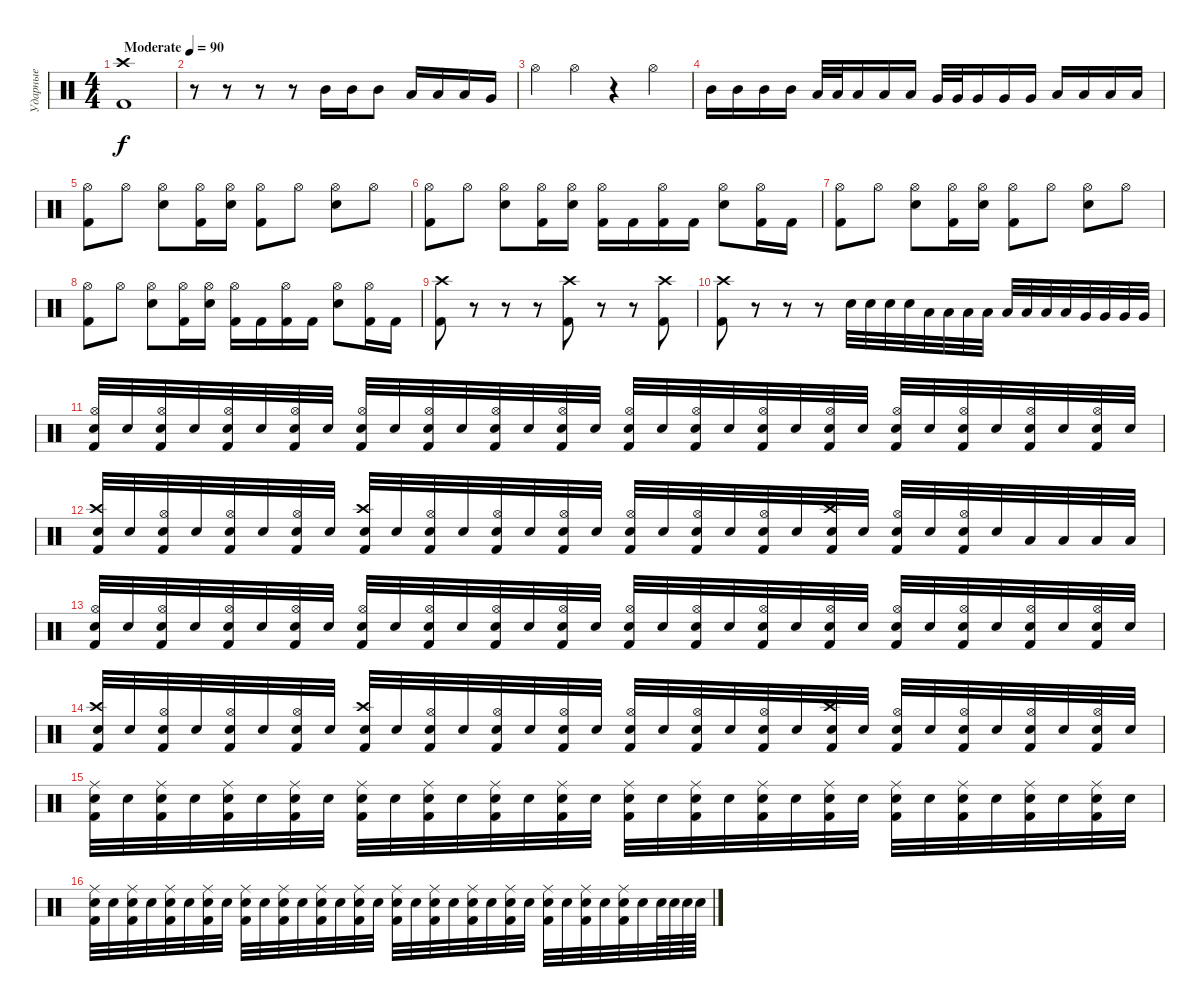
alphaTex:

\track ("Ударные" "Ударные") {instrument percussion}
\staff {score}
\articulation defaults
\ts (4 4)
\tempo (90 "Moderate")
\clef neutral
\ks c
("Kick (hit) 2" "Crash high (hit)").1{dy f} |
r.8 r.8 r.8 r.8 "Mid Tom (hit)".16 "Mid Tom (hit)".16 "Mid Tom (hit)".8 "Low Tom (hit)".16 "Low Tom (hit)".16 "Low Tom (hit)".16 "Very Low Tom (hit)".16 |
"Hi-Hat (open)".4 "Hi-Hat (open)".4 r.4 "Hi-Hat (open)".4 |
"Mid Tom (hit)".16 "Mid Tom (hit)".16 "Mid Tom (hit)".16 "Mid Tom (hit)".16 "Low Tom (hit)".32 "Low Tom (hit)".32 "Low Tom (hit)".16 "Low Tom (hit)".16 "Low Tom (hit)".16 "Very Low Tom (hit)".32 "Very Low Tom (hit)".32 "Very Low Tom (hit)".16 "Very Low Tom (hit)".16 "Very Low Tom (hit)".16 "Low Floor Tom (hit)".16 "Low Floor Tom (hit)".16 "Low Floor Tom (hit)".16 "Low Floor Tom (hit)".16 |
("Kick (hit) 2" "Hi-Hat (open)").8 "Hi-Hat (open)".8 ("Hi-Hat (open)" "Snare (hit) 2").8 ("Kick (hit) 2" "Hi-Hat (open)").16 ("Snare (hit) 2" "Hi-Hat (open)").16 ("Kick (hit) 2" "Hi-Hat (open)").8 "Hi-Hat (open)".8 ("Snare (hit) 2" "Hi-Hat (open)").8 "Hi-Hat (open)".8 |
("Kick (hit) 2" "Hi-Hat (open)").8 "Hi-Hat (open)".8 ("Hi-Hat (open)" "Snare (hit) 2").8 ("Kick (hit) 2" "Hi-Hat (open)").16 ("Snare (hit) 2" "Hi-Hat (open)").16 ("Kick (hit) 2" "Hi-Hat (open)").16 "Kick (hit) 2".16 ("Kick (hit) 2" "Hi-Hat (open)").16 "Kick (hit) 2".16 ("Snare (hit) 2" "Hi-Hat (open)").8 ("Kick (hit) 2" "Hi-Hat (open)").16 "Kick (hit) 2".16 |
("Kick (hit) 2" "Hi-Hat (open)").8 "Hi-Hat (open)".8 ("Hi-Hat (open)" "Snare (hit) 2").8 ("Kick (hit) 2" "Hi-Hat (open)").16 ("Snare (hit) 2" "Hi-Hat (open)").16 ("Kick (hit) 2" "Hi-Hat (open)").8 "Hi-Hat (open)".8 ("Snare (hit) 2" "Hi-Hat (open)").8 "Hi-Hat (open)".8 |
("Kick (hit) 2" "Hi-Hat (open)").8 "Hi-Hat (open)".8 ("Hi-Hat (open)" "Snare (hit) 2").8 ("Kick (hit) 2" "Hi-Hat (open)").16 ("Snare (hit) 2" "Hi-Hat (open)").16 ("Kick (hit) 2" "Hi-Hat (open)").16 "Kick (hit) 2".16 ("Kick (hit) 2" "Hi-Hat (open)").16 "Kick (hit) 2".16 ("Snare (hit) 2" "Hi-Hat (open)").8 ("Kick (hit) 2" "Hi-Hat (open)").16 "Kick (hit) 2".16 |
("Crash high (hit)" "Kick (hit) 2").8 r.8 r.8 r.8 ("Kick (hit) 2" "Crash high (hit)").8 r.8 r.8 ("Kick (hit) 2" "Crash high (hit)").8 |
("Kick (hit) 2" "Crash high (hit)").8 r.8 r.8 r.8 "Snare (hit) 2".32 "Snare (hit) 2".32 "Snare (hit) 2".32 "Snare (hit) 2".32 "Low Tom (hit)".32 "Low Tom (hit)".32 "Low Tom (hit)".32 "Low Tom (hit)".32 "Low Tom (hit)".32 "Low Tom (hit)".32 "Low Tom (hit)".32 "Low Tom (hit)".32 "Very Low Tom (hit)".32 "Very Low Tom (hit)".32 "Very Low Tom (hit)".32 "Very Low Tom (hit)".32 |
("Snare (hit) 2" "Kick (hit) 2" "Hi-Hat (open)").32 "Snare (hit) 2".32 ("Snare (hit) 2" "Kick (hit) 2" "Hi-Hat (open)").32 "Snare (hit) 2".32 ("Snare (hit) 2" "Kick (hit) 2" "Hi-Hat (open)").32 "Snare (hit) 2".32 ("Snare (hit) 2" "Kick (hit) 2" "Hi-Hat (open)").32 "Snare (hit) 2".32 ("Snare (hit) 2" "Kick (hit) 2" "Hi-Hat (open)").32 "Snare (hit) 2".32 ("Snare (hit) 2" "Kick (hit) 2" "Hi-Hat (open)").32 "Snare (hit) 2".32 ("Snare (hit) 2" "Kick (hit) 2" "Hi-Hat (open)").32 "Snare (hit) 2".32 ("Snare (hit) 2" "Kick (hit) 2" "Hi-Hat (open)").32 "Snare (hit) 2".32 ("Snare (hit) 2" "Kick (hit) 2" "Hi-Hat (open)").32 "Snare (hit) 2".32 ("Snare (hit) 2" "Kick (hit) 2" "Hi-Hat (open)").32 "Snare (hit) 2".32 ("Snare (hit) 2" "Kick (hit) 2" "Hi-Hat (open)").32 "Snare (hit) 2".32 ("Snare (hit) 2" "Kick (hit) 2" "Hi-Hat (open)").32 "Snare (hit) 2".32 ("Snare (hit) 2" "Kick (hit) 2" "Hi-Hat (open)").32 "Snare (hit) 2".32 ("Snare (hit) 2" "Kick (hit) 2" "Hi-Hat (open)").32 "Snare (hit) 2".32 ("Snare (hit) 2" "Kick (hit) 2" "Hi-Hat (open)").32 "Snare (hit) 2".32 ("Snare (hit) 2" "Kick (hit) 2" "Hi-Hat (open)").32 "Snare (hit) 2".32 |
("Snare (hit) 2" "Kick (hit) 2" "Crash high (hit)").32 "Snare (hit) 2".32 ("Snare (hit) 2" "Kick (hit) 2" "Hi-Hat (open)").32 "Snare (hit) 2".32 ("Snare (hit) 2" "Kick (hit) 2" "Hi-Hat (open)").32 "Snare (hit) 2".32 ("Snare (hit) 2" "Kick (hit) 2" "Hi-Hat (open)").32 "Snare (hit) 2".32 ("Snare (hit) 2" "Kick (hit) 2" "Crash high (hit)").32 "Snare (hit) 2".32 ("Snare (hit) 2" "Kick (hit) 2" "Hi-Hat (open)").32 "Snare (hit) 2".32 ("Snare (hit) 2" "Kick (hit) 2" "Hi-Hat (open)").32 "Snare (hit) 2".32 ("Snare (hit) 2" "Kick (hit) 2" "Hi-Hat (open)").32 "Snare (hit) 2".32 ("Snare (hit) 2" "Kick (hit) 2" "Hi-Hat (open)").32 "Snare (hit) 2".32 ("Snare (hit) 2" "Kick (hit) 2" "Hi-Hat (open)").32 "Snare (hit) 2".32 ("Snare (hit) 2" "Kick (hit) 2" "Hi-Hat (open)").32 "Snare (hit) 2".32 ("Snare (hit) 2" "Kick (hit) 2" "Crash high (hit)").32 "Snare (hit) 2".32 ("Snare (hit) 2" "Kick (hit) 2" "Hi-Hat (open)").32 "Snare (hit) 2".32 ("Snare (hit) 2" "Kick (hit) 2" "Hi-Hat (open)").32 "Snare (hit) 2".32 "Low Tom (hit)".32 "Low Tom (hit)".32 "Low Tom (hit)".32 "Low Tom (hit)".32 |
("Snare (hit) 2" "Kick (hit) 2" "Hi-Hat (open)").32 "Snare (hit) 2".32 ("Snare (hit) 2" "Kick (hit) 2" "Hi-Hat (open)").32 "Snare (hit) 2".32 ("Snare (hit) 2" "Kick (hit) 2" "Hi-Hat (open)").32 "Snare (hit) 2".32 ("Snare (hit) 2" "Kick (hit) 2" "Hi-Hat (open)").32 "Snare (hit) 2".32 ("Snare (hit) 2" "Kick (hit) 2" "Hi-Hat (open)").32 "Snare (hit) 2".32 ("Snare (hit) 2" "Kick (hit) 2" "Hi-Hat (open)").32 "Snare (hit) 2".32 ("Snare (hit) 2" "Kick (hit) 2" "Hi-Hat (open)").32 "Snare (hit) 2".32 ("Snare (hit) 2" "Kick (hit) 2" "Hi-Hat (open)").32 "Snare (hit) 2".32 ("Snare (hit) 2" "Kick (hit) 2" "Hi-Hat (open)").32 "Snare (hit) 2".32 ("Snare (hit) 2" "Kick (hit) 2" "Hi-Hat (open)").32 "Snare (hit) 2".32 ("Snare (hit) 2" "Kick (hit) 2" "Hi-Hat (open)").32 "Snare (hit) 2".32 ("Snare (hit) 2" "Kick (hit) 2" "Hi-Hat (open)").32 "Snare (hit) 2".32 ("Snare (hit) 2" "Kick (hit) 2" "Hi-Hat (open)").32 "Snare (hit) 2".32 ("Snare (hit) 2" "Kick (hit) 2" "Hi-Hat (open)").32 "Snare (hit) 2".32 ("Snare (hit) 2" "Kick (hit) 2" "Hi-Hat (open)").32 "Snare (hit) 2".32 ("Snare (hit) 2" "Kick (hit) 2" "Hi-Hat (open)").32 "Snare (hit) 2".32 |
("Snare (hit) 2" "Kick (hit) 2" "Crash high (hit)").32 "Snare (hit) 2".32 ("Snare (hit) 2" "Kick (hit) 2" "Hi-Hat (open)").32 "Snare (hit) 2".32 ("Snare (hit) 2" "Kick (hit) 2" "Hi-Hat (open)").32 "Snare (hit) 2".32 ("Snare (hit) 2" "Kick (hit) 2" "Hi-Hat (open)").32 "Snare (hit) 2".32 ("Snare (hit) 2" "Kick (hit) 2" "Crash high (hit)").32 "Snare (hit) 2".32 ("Snare (hit) 2" "Kick (hit) 2" "Hi-Hat (open)").32 "Snare (hit) 2".32 ("Snare (hit) 2" "Kick (hit) 2" "Hi-Hat (open)").32 "Snare (hit) 2".32 ("Snare (hit) 2" "Kick (hit) 2" "Hi-Hat (open)").32 "Snare (hit) 2".32 ("Snare (hit) 2" "Kick (hit) 2" "Hi-Hat (open)").32 "Snare (hit) 2".32 ("Snare (hit) 2" "Kick (hit) 2" "Hi-Hat (open)").32 "Snare (hit) 2".32 ("Snare (hit) 2" "Kick (hit) 2" "Hi-Hat (open)").32 "Snare (hit) 2".32 ("Snare (hit) 2" "Kick (hit) 2" "Crash high (hit)").32 "Snare (hit) 2".32 ("Snare (hit) 2" "Kick (hit) 2" "Hi-Hat (open)").32 "Snare (hit) 2".32 ("Snare (hit) 2" "Kick (hit) 2" "Hi-Hat (open)").32 "Snare (hit) 2".32 ("Snare (hit) 2" "Kick (hit) 2" "Hi-Hat (open)").32 "Snare (hit) 2".32 ("Snare (hit) 2" "Kick (hit) 2" "Hi-Hat (open)").32 "Snare (hit) 2".32 |
("Snare (hit) 2" "Kick (hit) 2" "Ride (middle)").32 "Snare (hit) 2".32 ("Snare (hit) 2" "Kick (hit) 2" "Ride (middle)").32 "Snare (hit) 2".32 ("Snare (hit) 2" "Kick (hit) 2" "Ride (middle)").32 "Snare (hit) 2".32 ("Snare (hit) 2" "Kick (hit) 2" "Ride (middle)").32 "Snare (hit) 2".32 ("Snare (hit) 2" "Kick (hit) 2" "Ride (middle)").32 "Snare (hit) 2".32 ("Snare (hit) 2" "Kick (hit) 2" "Ride (middle)").32 "Snare (hit) 2".32 ("Snare (hit) 2" "Kick (hit) 2" "Ride (middle)").32 "Snare (hit) 2".32 ("Snare (hit) 2" "Kick (hit) 2" "Ride (middle)").32 "Snare (hit) 2".32 ("Snare (hit) 2" "Kick (hit) 2" "Ride (middle)").32 "Snare (hit) 2".32 ("Snare (hit) 2" "Kick (hit) 2" "Ride (middle)").32 "Snare (hit) 2".32 ("Snare (hit) 2" "Kick (hit) 2" "Ride (middle)").32 "Snare (hit) 2".32 ("Snare (hit) 2" "Kick (hit) 2" "Ride (middle)").32 "Snare (hit) 2".32 ("Snare (hit) 2" "Kick (hit) 2" "Ride (middle)").32 "Snare (hit) 2".32 ("Snare (hit) 2" "Kick (hit) 2" "Ride (middle)").32 "Snare (hit) 2".32 ("Snare (hit) 2" "Kick (hit) 2" "Ride (middle)").32 "Snare (hit) 2".32 ("Snare (hit) 2" "Kick (hit) 2" "Ride (middle)").32 "Snare (hit) 2".32 |
("Snare (hit) 2" "Kick (hit) 2" "Ride (middle)").32 "Snare (hit) 2".32 ("Snare (hit) 2" "Kick (hit) 2" "Ride (middle)").32 "Snare (hit) 2".32 ("Snare (hit) 2" "Kick (hit) 2" "Ride (middle)").32 "Snare (hit) 2".32 ("Snare (hit) 2" "Kick (hit) 2" "Ride (middle)").32 "Snare (hit) 2".32 ("Snare (hit) 2" "Kick (hit) 2" "Ride (middle)").32 "Snare (hit) 2".32 ("Snare (hit) 2" "Kick (hit) 2" "Ride (middle)").32 "Snare (hit) 2".32 ("Snare (hit) 2" "Kick (hit) 2" "Ride (middle)").32 "Snare (hit) 2".32 ("Snare (hit) 2" "Kick (hit) 2" "Ride (middle)").32 "Snare (hit) 2".32 ("Snare (hit) 2" "Kick (hit) 2" "Ride (middle)").32 "Snare (hit) 2".32 ("Snare (hit) 2" "Kick (hit) 2" "Ride (middle)").32 "Snare (hit) 2".32 ("Snare (hit) 2" "Kick (hit) 2" "Ride (middle)").32 "Snare (hit) 2".32 ("Snare (hit) 2" "Kick (hit) 2" "Ride (middle)").32 "Snare (hit) 2".32 ("Snare (hit) 2" "Kick (hit) 2" "Ride (middle)").32 "Snare (hit) 2".32 ("Snare (hit) 2" "Kick (hit) 2" "Ride (middle)").32 "Snare (hit) 2".32 ("Snare (hit) 2" "Kick (hit) 2" "Ride (middle)").32 "Snare (hit) 2".32 "Snare (hit) 2".64 "Snare (hit) 2".64 "Snare (hit) 2".64 "Snare (hit) 2".64
